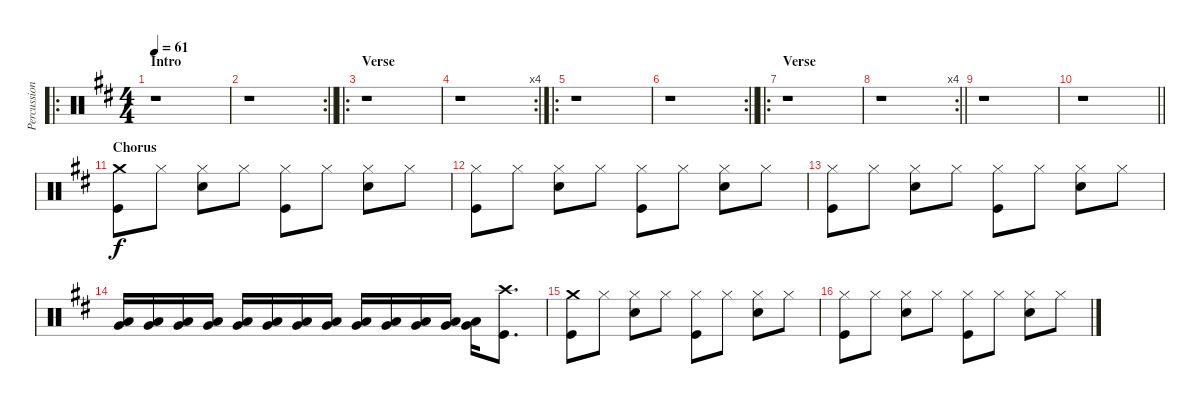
\track ("Percussion" "Percussion") {instrument percussion}
\staff {score}
\articulation defaults
\ro
\ts (4 4)
\section ("" "Intro")
\tempo 61
\clef neutral
\ks d
r.1{dy f} |
\rc 2
\barLineRight lightlight
r.1 |
\ro
\section ("" "Verse")
r.1 |
\rc 4
r.1 |
\ro
r.1 |
\rc 2
\barLineRight lightlight
r.1 |
\ro
\section ("" "Verse")
r.1 |
\rc 4
\barLineRight lightlight
r.1 |
r.1 |
\barLineRight lightlight
r.1 |
\section ("" "Chorus")
("Crash medium (hit)" "Kick (hit)").8 "Hi-Hat (closed)".8 ("Hi-Hat (closed)" "Snare (hit) 2").8 "Hi-Hat (closed)".8 ("Hi-Hat (closed)" "Kick (hit)").8 "Hi-Hat (closed)".8 ("Hi-Hat (closed)" "Snare (hit) 2").8 "Hi-Hat (closed)".8 |
("Hi-Hat (closed)" "Kick (hit)").8 "Hi-Hat (closed)".8 ("Hi-Hat (closed)" "Snare (hit) 2").8 "Hi-Hat (closed)".8 ("Hi-Hat (closed)" "Kick (hit)").8 "Hi-Hat (closed)".8 ("Hi-Hat (closed)" "Snare (hit) 2").8 "Hi-Hat (closed)".8 |
("Hi-Hat (closed)" "Kick (hit)").8 "Hi-Hat (closed)".8 ("Hi-Hat (closed)" "Snare (hit) 2").8 "Hi-Hat (closed)".8 ("Hi-Hat (closed)" "Kick (hit)").8 "Hi-Hat (closed)".8 ("Hi-Hat (closed)" "Snare (hit) 2").8 "Hi-Hat (closed)".8 |
("Very Low Tom (hit)" "Low Floor Tom (hit)").16 ("Very Low Tom (hit)" "Low Floor Tom (hit)").16 ("Very Low Tom (hit)" "Low Floor Tom (hit)").16 ("Very Low Tom (hit)" "Low Floor Tom (hit)").16 ("Very Low Tom (hit)" "Low Floor Tom (hit)").16 ("Very Low Tom (hit)" "Low Floor Tom (hit)").16 ("Very Low Tom (hit)" "Low Floor Tom (hit)").16 ("Very Low Tom (hit)" "Low Floor Tom (hit)").16 ("Very Low Tom (hit)" "Low Floor Tom (hit)").16 ("Very Low Tom (hit)" "Low Floor Tom (hit)").16 ("Very Low Tom (hit)" "Low Floor Tom (hit)").16 ("Very Low Tom (hit)" "Low Floor Tom (hit)").16 ("Very Low Tom (hit)" "Low Floor Tom (hit)").16 ("Crash high (hit)" "Kick (hit)").8{d} |
("Crash medium (hit)" "Kick (hit)").8 "Hi-Hat (closed)".8 ("Hi-Hat (closed)" "Snare (hit) 2").8 "Hi-Hat (closed)".8 ("Hi-Hat (closed)" "Kick (hit)").8 "Hi-Hat (closed)".8 ("Hi-Hat (closed)" "Snare (hit) 2").8 "Hi-Hat (closed)".8 |
("Hi-Hat (closed)" "Kick (hit)").8 "Hi-Hat (closed)".8 ("Hi-Hat (closed)" "Snare (hit) 2").8 "Hi-Hat (closed)".8 ("Hi-Hat (closed)" "Kick (hit)").8 "Hi-Hat (closed)".8 ("Hi-Hat (closed)" "Snare (hit) 2").8 "Hi-Hat (closed)".8
